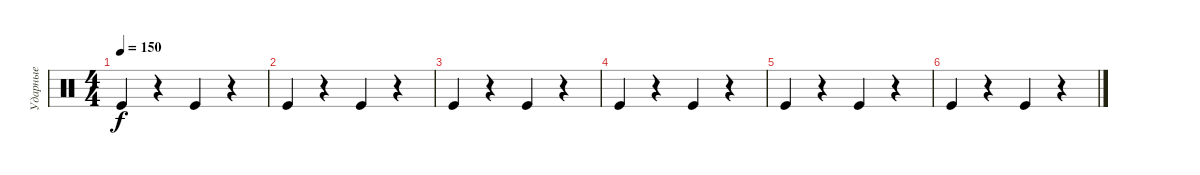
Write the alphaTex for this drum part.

\track ("Ударные" "Ударные") {instrument percussion}
\staff {score}
\articulation defaults
\ts (4 4)
\tempo 150
\clef neutral
\ks c "Kick (hit)".4{dy f}
r.4 "Kick (hit)".4 r.4 |
"Kick (hit)".4 r.4 "Kick (hit)".4 r.4 |
"Kick (hit)".4 r.4 "Kick (hit)".4 r.4 |
"Kick (hit)".4 r.4 "Kick (hit)".4 r.4 |
"Kick (hit)".4 r.4 "Kick (hit)".4 r.4 |
"Kick (hit)".4 r.4 "Kick (hit)".4 r.4
